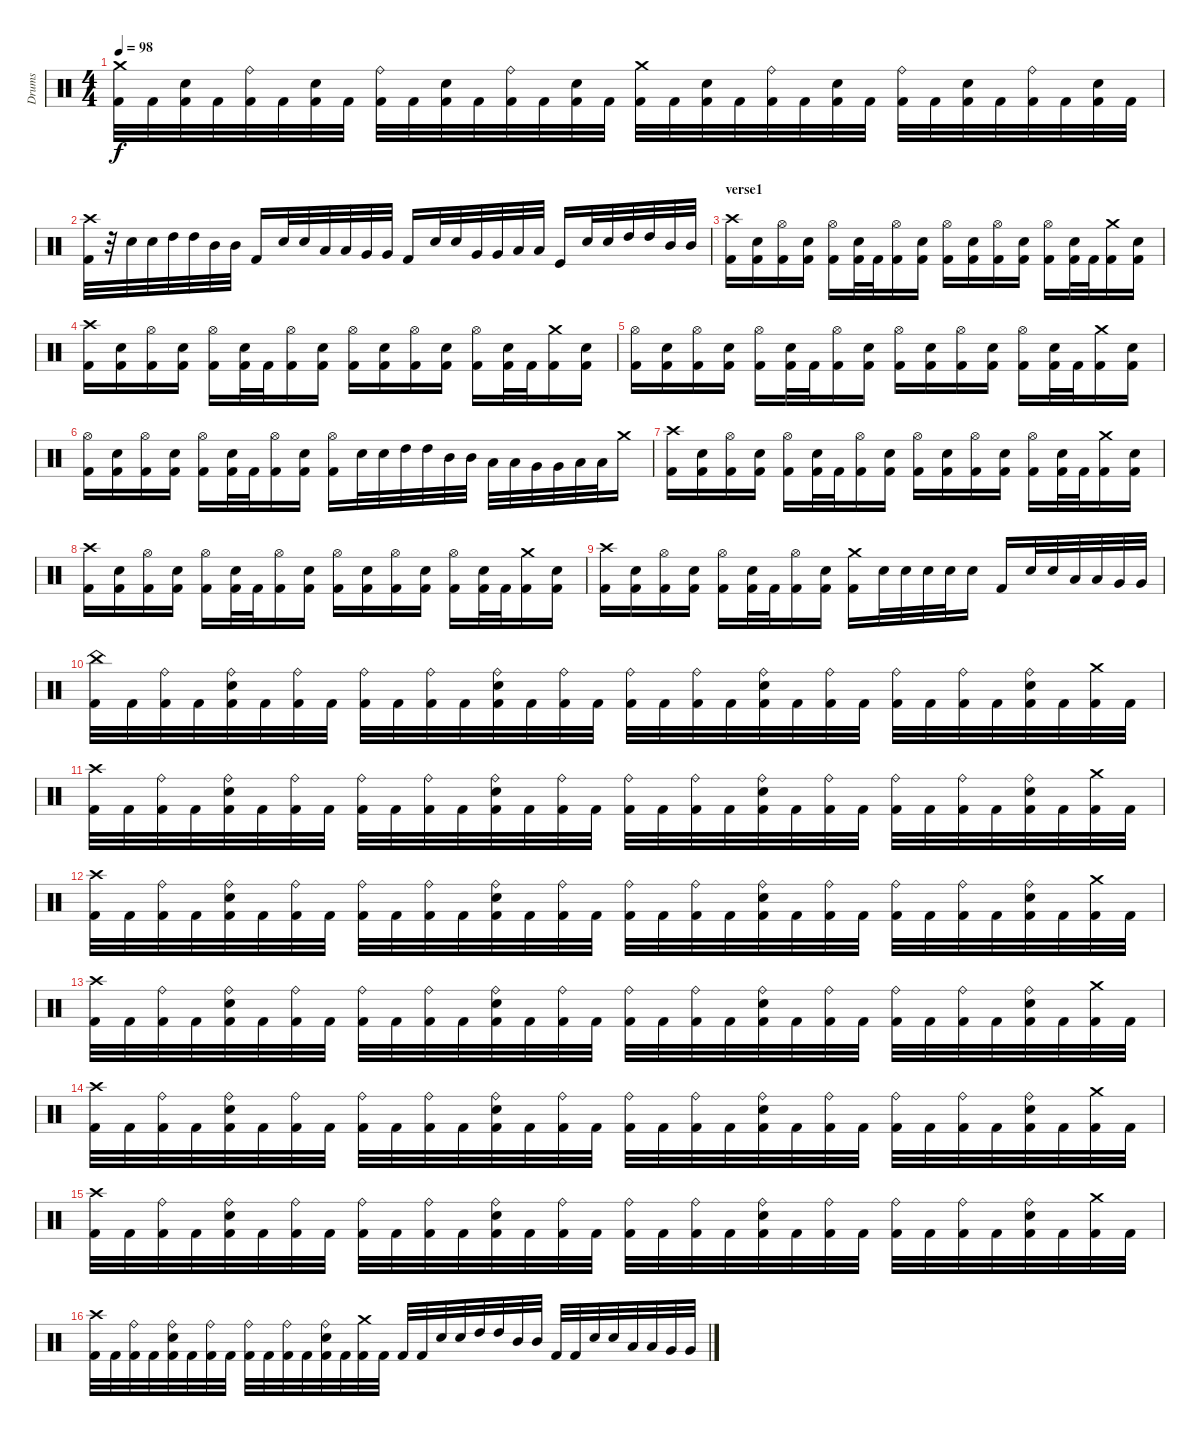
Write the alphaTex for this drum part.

\track ("Drums" "Drums") {instrument percussion}
\staff {score}
\articulation defaults
\ts (4 4)
\tempo 98
\clef neutral
\ks c
("Crash medium (hit)" "Kick (hit) 2").32{dy f} "Kick (hit) 2".32 ("Electric Snare (hit)" "Kick (hit) 2").32 "Kick (hit) 2".32 ("Ride (bell)" "Kick (hit) 2").32 "Kick (hit) 2".32 ("Electric Snare (hit)" "Kick (hit) 2").32 "Kick (hit) 2".32 ("Ride (bell)" "Kick (hit) 2").32 "Kick (hit) 2".32 ("Electric Snare (hit)" "Kick (hit) 2").32 "Kick (hit) 2".32 ("Ride (bell)" "Kick (hit) 2").32 "Kick (hit) 2".32 ("Electric Snare (hit)" "Kick (hit) 2").32 "Kick (hit) 2".32 ("Crash medium (hit)" "Kick (hit) 2").32 "Kick (hit) 2".32 ("Electric Snare (hit)" "Kick (hit) 2").32 "Kick (hit) 2".32 ("Ride (bell)" "Kick (hit) 2").32 "Kick (hit) 2".32 ("Electric Snare (hit)" "Kick (hit) 2").32 "Kick (hit) 2".32 ("Ride (bell)" "Kick (hit) 2").32 "Kick (hit) 2".32 ("Electric Snare (hit)" "Kick (hit) 2").32 "Kick (hit) 2".32 ("Ride (bell)" "Kick (hit) 2").32 "Kick (hit) 2".32 ("Electric Snare (hit)" "Kick (hit) 2").32 "Kick (hit) 2".32 |
("Crash high (hit)" "Kick (hit) 2").32 r.32 "Electric Snare (hit)".32 "Electric Snare (hit)".32 "High Tom (hit)".32 "High Tom (hit)".32 "Mid Tom (hit)".32 "Mid Tom (hit)".32 "Kick (hit) 2".16 "Electric Snare (hit)".32 "Electric Snare (hit)".32 "Low Tom (hit)".32 "Low Tom (hit)".32 "Very Low Tom (hit)".32 "Very Low Tom (hit)".32 "Kick (hit) 2".16 "Electric Snare (hit)".32 "Electric Snare (hit)".32 "Very Low Tom (hit)".32 "Very Low Tom (hit)".32 "Low Floor Tom (hit)".32 "Low Floor Tom (hit)".32 "Kick (hit)".16 "Electric Snare (hit)".32 "Electric Snare (hit)".32 "High Tom (hit)".32 "High Tom (hit)".32 "Mid Tom (hit)".32 "Mid Tom (hit)".32 |
\section ("" "verse1")
("Crash high (hit)" "Kick (hit) 2").16 ("Electric Snare (hit)" "Kick (hit) 2").16 ("Hi-Hat (open)" "Kick (hit) 2").16 ("Electric Snare (hit)" "Kick (hit) 2").16 ("Hi-Hat (open)" "Kick (hit) 2").16 ("Electric Snare (hit)" "Kick (hit) 2").32 "Kick (hit) 2".32 ("Hi-Hat (open)" "Kick (hit) 2").16 ("Electric Snare (hit)" "Kick (hit) 2").16 ("Hi-Hat (open)" "Kick (hit) 2").16 ("Electric Snare (hit)" "Kick (hit) 2").16 ("Hi-Hat (open)" "Kick (hit) 2").16 ("Electric Snare (hit)" "Kick (hit) 2").16 ("Hi-Hat (open)" "Kick (hit) 2").16 ("Electric Snare (hit)" "Kick (hit) 2").32 "Kick (hit) 2".32 ("Crash medium (hit)" "Kick (hit) 2").16 ("Electric Snare (hit)" "Kick (hit) 2").16 |
("Crash high (hit)" "Kick (hit) 2").16 ("Electric Snare (hit)" "Kick (hit) 2").16 ("Hi-Hat (open)" "Kick (hit) 2").16 ("Electric Snare (hit)" "Kick (hit) 2").16 ("Hi-Hat (open)" "Kick (hit) 2").16 ("Electric Snare (hit)" "Kick (hit) 2").32 "Kick (hit) 2".32 ("Hi-Hat (open)" "Kick (hit) 2").16 ("Electric Snare (hit)" "Kick (hit) 2").16 ("Hi-Hat (open)" "Kick (hit) 2").16 ("Electric Snare (hit)" "Kick (hit) 2").16 ("Hi-Hat (open)" "Kick (hit) 2").16 ("Electric Snare (hit)" "Kick (hit) 2").16 ("Hi-Hat (open)" "Kick (hit) 2").16 ("Electric Snare (hit)" "Kick (hit) 2").32 "Kick (hit) 2".32 ("Crash medium (hit)" "Kick (hit) 2").16 ("Electric Snare (hit)" "Kick (hit) 2").16 |
("Hi-Hat (open)" "Kick (hit) 2").16 ("Electric Snare (hit)" "Kick (hit) 2").16 ("Hi-Hat (open)" "Kick (hit) 2").16 ("Electric Snare (hit)" "Kick (hit) 2").16 ("Hi-Hat (open)" "Kick (hit) 2").16 ("Electric Snare (hit)" "Kick (hit) 2").32 "Kick (hit) 2".32 ("Hi-Hat (open)" "Kick (hit) 2").16 ("Electric Snare (hit)" "Kick (hit) 2").16 ("Hi-Hat (open)" "Kick (hit) 2").16 ("Electric Snare (hit)" "Kick (hit) 2").16 ("Hi-Hat (open)" "Kick (hit) 2").16 ("Electric Snare (hit)" "Kick (hit) 2").16 ("Hi-Hat (open)" "Kick (hit) 2").16 ("Electric Snare (hit)" "Kick (hit) 2").32 "Kick (hit) 2".32 ("Crash medium (hit)" "Kick (hit) 2").16 ("Electric Snare (hit)" "Kick (hit) 2").16 |
("Hi-Hat (open)" "Kick (hit) 2").16 ("Electric Snare (hit)" "Kick (hit) 2").16 ("Hi-Hat (open)" "Kick (hit) 2").16 ("Electric Snare (hit)" "Kick (hit) 2").16 ("Hi-Hat (open)" "Kick (hit) 2").16 ("Electric Snare (hit)" "Kick (hit) 2").32 "Kick (hit) 2".32 ("Hi-Hat (open)" "Kick (hit) 2").16 ("Electric Snare (hit)" "Kick (hit) 2").16 ("Hi-Hat (open)" "Kick (hit) 2").16 "Electric Snare (hit)".32 "Electric Snare (hit)".32 "High Tom (hit)".32 "High Tom (hit)".32 "Mid Tom (hit)".32 "Mid Tom (hit)".32 "Low Tom (hit)".32 "Low Tom (hit)".32 "Very Low Tom (hit)".32 "Very Low Tom (hit)".32 "Low Floor Tom (hit)".32 "Low Floor Tom (hit)".32 "Crash medium (hit)".16 |
("Crash high (hit)" "Kick (hit) 2").16 ("Electric Snare (hit)" "Kick (hit) 2").16 ("Hi-Hat (open)" "Kick (hit) 2").16 ("Electric Snare (hit)" "Kick (hit) 2").16 ("Hi-Hat (open)" "Kick (hit) 2").16 ("Electric Snare (hit)" "Kick (hit) 2").32 "Kick (hit) 2".32 ("Hi-Hat (open)" "Kick (hit) 2").16 ("Electric Snare (hit)" "Kick (hit) 2").16 ("Hi-Hat (open)" "Kick (hit) 2").16 ("Electric Snare (hit)" "Kick (hit) 2").16 ("Hi-Hat (open)" "Kick (hit) 2").16 ("Electric Snare (hit)" "Kick (hit) 2").16 ("Hi-Hat (open)" "Kick (hit) 2").16 ("Electric Snare (hit)" "Kick (hit) 2").32 "Kick (hit) 2".32 ("Crash medium (hit)" "Kick (hit) 2").16 ("Electric Snare (hit)" "Kick (hit) 2").16 |
("Crash high (hit)" "Kick (hit) 2").16 ("Electric Snare (hit)" "Kick (hit) 2").16 ("Hi-Hat (open)" "Kick (hit) 2").16 ("Electric Snare (hit)" "Kick (hit) 2").16 ("Hi-Hat (open)" "Kick (hit) 2").16 ("Electric Snare (hit)" "Kick (hit) 2").32 "Kick (hit) 2".32 ("Hi-Hat (open)" "Kick (hit) 2").16 ("Electric Snare (hit)" "Kick (hit) 2").16 ("Hi-Hat (open)" "Kick (hit) 2").16 ("Electric Snare (hit)" "Kick (hit) 2").16 ("Hi-Hat (open)" "Kick (hit) 2").16 ("Electric Snare (hit)" "Kick (hit) 2").16 ("Hi-Hat (open)" "Kick (hit) 2").16 ("Electric Snare (hit)" "Kick (hit) 2").32 "Kick (hit) 2".32 ("Crash medium (hit)" "Kick (hit) 2").16 ("Electric Snare (hit)" "Kick (hit) 2").16 |
("Crash high (hit)" "Kick (hit) 2").16 ("Electric Snare (hit)" "Kick (hit) 2").16 ("Hi-Hat (open)" "Kick (hit) 2").16 ("Electric Snare (hit)" "Kick (hit) 2").16 ("Hi-Hat (open)" "Kick (hit) 2").16 ("Electric Snare (hit)" "Kick (hit) 2").32 "Kick (hit) 2".32 ("Hi-Hat (open)" "Kick (hit) 2").16 ("Electric Snare (hit)" "Kick (hit) 2").16 ("Crash medium (hit)" "Kick (hit) 2").16 "Electric Snare (hit)".32 "Electric Snare (hit)".32 "Electric Snare (hit)".32 "Electric Snare (hit)".32 "Electric Snare (hit)".16 "Kick (hit) 2".16 "Electric Snare (hit)".32 "Electric Snare (hit)".32 "Low Tom (hit)".32 "Low Tom (hit)".32 "Very Low Tom (hit)".32 "Very Low Tom (hit)".32 |
("China (hit)" "Kick (hit) 2").32 "Kick (hit) 2".32 ("Ride (bell)" "Kick (hit) 2").32 "Kick (hit) 2".32 ("Ride (bell)" "Electric Snare (hit)" "Kick (hit) 2").32 "Kick (hit) 2".32 ("Ride (bell)" "Kick (hit) 2").32 "Kick (hit) 2".32 ("Ride (bell)" "Kick (hit) 2").32 "Kick (hit) 2".32 ("Ride (bell)" "Kick (hit) 2").32 "Kick (hit) 2".32 ("Ride (bell)" "Electric Snare (hit)" "Kick (hit) 2").32 "Kick (hit) 2".32 ("Ride (bell)" "Kick (hit) 2").32 "Kick (hit) 2".32 ("Ride (bell)" "Kick (hit) 2").32 "Kick (hit) 2".32 ("Ride (bell)" "Kick (hit) 2").32 "Kick (hit) 2".32 ("Ride (bell)" "Electric Snare (hit)" "Kick (hit) 2").32 "Kick (hit) 2".32 ("Ride (bell)" "Kick (hit) 2").32 "Kick (hit) 2".32 ("Ride (bell)" "Kick (hit) 2").32 "Kick (hit) 2".32 ("Ride (bell)" "Kick (hit) 2").32 "Kick (hit) 2".32 ("Ride (bell)" "Electric Snare (hit)" "Kick (hit) 2").32 "Kick (hit) 2".32 ("Crash medium (hit)" "Kick (hit) 2").32 "Kick (hit) 2".32 |
("Crash high (hit)" "Kick (hit) 2").32 "Kick (hit) 2".32 ("Ride (bell)" "Kick (hit) 2").32 "Kick (hit) 2".32 ("Ride (bell)" "Electric Snare (hit)" "Kick (hit) 2").32 "Kick (hit) 2".32 ("Ride (bell)" "Kick (hit) 2").32 "Kick (hit) 2".32 ("Ride (bell)" "Kick (hit) 2").32 "Kick (hit) 2".32 ("Ride (bell)" "Kick (hit) 2").32 "Kick (hit) 2".32 ("Ride (bell)" "Electric Snare (hit)" "Kick (hit) 2").32 "Kick (hit) 2".32 ("Ride (bell)" "Kick (hit) 2").32 "Kick (hit) 2".32 ("Ride (bell)" "Kick (hit) 2").32 "Kick (hit) 2".32 ("Ride (bell)" "Kick (hit) 2").32 "Kick (hit) 2".32 ("Ride (bell)" "Electric Snare (hit)" "Kick (hit) 2").32 "Kick (hit) 2".32 ("Ride (bell)" "Kick (hit) 2").32 "Kick (hit) 2".32 ("Ride (bell)" "Kick (hit) 2").32 "Kick (hit) 2".32 ("Ride (bell)" "Kick (hit) 2").32 "Kick (hit) 2".32 ("Ride (bell)" "Electric Snare (hit)" "Kick (hit) 2").32 "Kick (hit) 2".32 ("Crash medium (hit)" "Kick (hit) 2").32 "Kick (hit) 2".32 |
("Crash high (hit)" "Kick (hit) 2").32 "Kick (hit) 2".32 ("Ride (bell)" "Kick (hit) 2").32 "Kick (hit) 2".32 ("Ride (bell)" "Electric Snare (hit)" "Kick (hit) 2").32 "Kick (hit) 2".32 ("Ride (bell)" "Kick (hit) 2").32 "Kick (hit) 2".32 ("Ride (bell)" "Kick (hit) 2").32 "Kick (hit) 2".32 ("Ride (bell)" "Kick (hit) 2").32 "Kick (hit) 2".32 ("Ride (bell)" "Electric Snare (hit)" "Kick (hit) 2").32 "Kick (hit) 2".32 ("Ride (bell)" "Kick (hit) 2").32 "Kick (hit) 2".32 ("Ride (bell)" "Kick (hit) 2").32 "Kick (hit) 2".32 ("Ride (bell)" "Kick (hit) 2").32 "Kick (hit) 2".32 ("Ride (bell)" "Electric Snare (hit)" "Kick (hit) 2").32 "Kick (hit) 2".32 ("Ride (bell)" "Kick (hit) 2").32 "Kick (hit) 2".32 ("Ride (bell)" "Kick (hit) 2").32 "Kick (hit) 2".32 ("Ride (bell)" "Kick (hit) 2").32 "Kick (hit) 2".32 ("Ride (bell)" "Electric Snare (hit)" "Kick (hit) 2").32 "Kick (hit) 2".32 ("Crash medium (hit)" "Kick (hit) 2").32 "Kick (hit) 2".32 |
("Crash high (hit)" "Kick (hit) 2").32 "Kick (hit) 2".32 ("Ride (bell)" "Kick (hit) 2").32 "Kick (hit) 2".32 ("Ride (bell)" "Electric Snare (hit)" "Kick (hit) 2").32 "Kick (hit) 2".32 ("Ride (bell)" "Kick (hit) 2").32 "Kick (hit) 2".32 ("Ride (bell)" "Kick (hit) 2").32 "Kick (hit) 2".32 ("Ride (bell)" "Kick (hit) 2").32 "Kick (hit) 2".32 ("Ride (bell)" "Electric Snare (hit)" "Kick (hit) 2").32 "Kick (hit) 2".32 ("Ride (bell)" "Kick (hit) 2").32 "Kick (hit) 2".32 ("Ride (bell)" "Kick (hit) 2").32 "Kick (hit) 2".32 ("Ride (bell)" "Kick (hit) 2").32 "Kick (hit) 2".32 ("Ride (bell)" "Electric Snare (hit)" "Kick (hit) 2").32 "Kick (hit) 2".32 ("Ride (bell)" "Kick (hit) 2").32 "Kick (hit) 2".32 ("Ride (bell)" "Kick (hit) 2").32 "Kick (hit) 2".32 ("Ride (bell)" "Kick (hit) 2").32 "Kick (hit) 2".32 ("Ride (bell)" "Electric Snare (hit)" "Kick (hit) 2").32 "Kick (hit) 2".32 ("Crash medium (hit)" "Kick (hit) 2").32 "Kick (hit) 2".32 |
("Crash high (hit)" "Kick (hit) 2").32 "Kick (hit) 2".32 ("Ride (bell)" "Kick (hit) 2").32 "Kick (hit) 2".32 ("Ride (bell)" "Electric Snare (hit)" "Kick (hit) 2").32 "Kick (hit) 2".32 ("Ride (bell)" "Kick (hit) 2").32 "Kick (hit) 2".32 ("Ride (bell)" "Kick (hit) 2").32 "Kick (hit) 2".32 ("Ride (bell)" "Kick (hit) 2").32 "Kick (hit) 2".32 ("Ride (bell)" "Electric Snare (hit)" "Kick (hit) 2").32 "Kick (hit) 2".32 ("Ride (bell)" "Kick (hit) 2").32 "Kick (hit) 2".32 ("Ride (bell)" "Kick (hit) 2").32 "Kick (hit) 2".32 ("Ride (bell)" "Kick (hit) 2").32 "Kick (hit) 2".32 ("Ride (bell)" "Electric Snare (hit)" "Kick (hit) 2").32 "Kick (hit) 2".32 ("Ride (bell)" "Kick (hit) 2").32 "Kick (hit) 2".32 ("Ride (bell)" "Kick (hit) 2").32 "Kick (hit) 2".32 ("Ride (bell)" "Kick (hit) 2").32 "Kick (hit) 2".32 ("Ride (bell)" "Electric Snare (hit)" "Kick (hit) 2").32 "Kick (hit) 2".32 ("Crash medium (hit)" "Kick (hit) 2").32 "Kick (hit) 2".32 |
("Crash high (hit)" "Kick (hit) 2").32 "Kick (hit) 2".32 ("Ride (bell)" "Kick (hit) 2").32 "Kick (hit) 2".32 ("Ride (bell)" "Electric Snare (hit)" "Kick (hit) 2").32 "Kick (hit) 2".32 ("Ride (bell)" "Kick (hit) 2").32 "Kick (hit) 2".32 ("Ride (bell)" "Kick (hit) 2").32 "Kick (hit) 2".32 ("Ride (bell)" "Kick (hit) 2").32 "Kick (hit) 2".32 ("Ride (bell)" "Electric Snare (hit)" "Kick (hit) 2").32 "Kick (hit) 2".32 ("Ride (bell)" "Kick (hit) 2").32 "Kick (hit) 2".32 ("Ride (bell)" "Kick (hit) 2").32 "Kick (hit) 2".32 ("Ride (bell)" "Kick (hit) 2").32 "Kick (hit) 2".32 ("Ride (bell)" "Electric Snare (hit)" "Kick (hit) 2").32 "Kick (hit) 2".32 ("Ride (bell)" "Kick (hit) 2").32 "Kick (hit) 2".32 ("Ride (bell)" "Kick (hit) 2").32 "Kick (hit) 2".32 ("Ride (bell)" "Kick (hit) 2").32 "Kick (hit) 2".32 ("Ride (bell)" "Electric Snare (hit)" "Kick (hit) 2").32 "Kick (hit) 2".32 ("Crash medium (hit)" "Kick (hit) 2").32 "Kick (hit) 2".32 |
("Crash high (hit)" "Kick (hit) 2").32 "Kick (hit) 2".32 ("Ride (bell)" "Kick (hit) 2").32 "Kick (hit) 2".32 ("Ride (bell)" "Electric Snare (hit)" "Kick (hit) 2").32 "Kick (hit) 2".32 ("Ride (bell)" "Kick (hit) 2").32 "Kick (hit) 2".32 ("Ride (bell)" "Kick (hit) 2").32 "Kick (hit) 2".32 ("Ride (bell)" "Kick (hit) 2").32 "Kick (hit) 2".32 ("Ride (bell)" "Electric Snare (hit)" "Kick (hit) 2").32 "Kick (hit) 2".32 ("Crash medium (hit)" "Kick (hit) 2").32 "Kick (hit) 2".32 "Kick (hit) 2".32 "Kick (hit) 2".32 "Electric Snare (hit)".32 "Electric Snare (hit)".32 "High Tom (hit)".32 "High Tom (hit)".32 "Mid Tom (hit)".32 "Mid Tom (hit)".32 "Kick (hit) 2".32 "Kick (hit) 2".32 "Electric Snare (hit)".32 "Electric Snare (hit)".32 "Low Tom (hit)".32 "Low Tom (hit)".32 "Very Low Tom (hit)".32 "Very Low Tom (hit)".32
